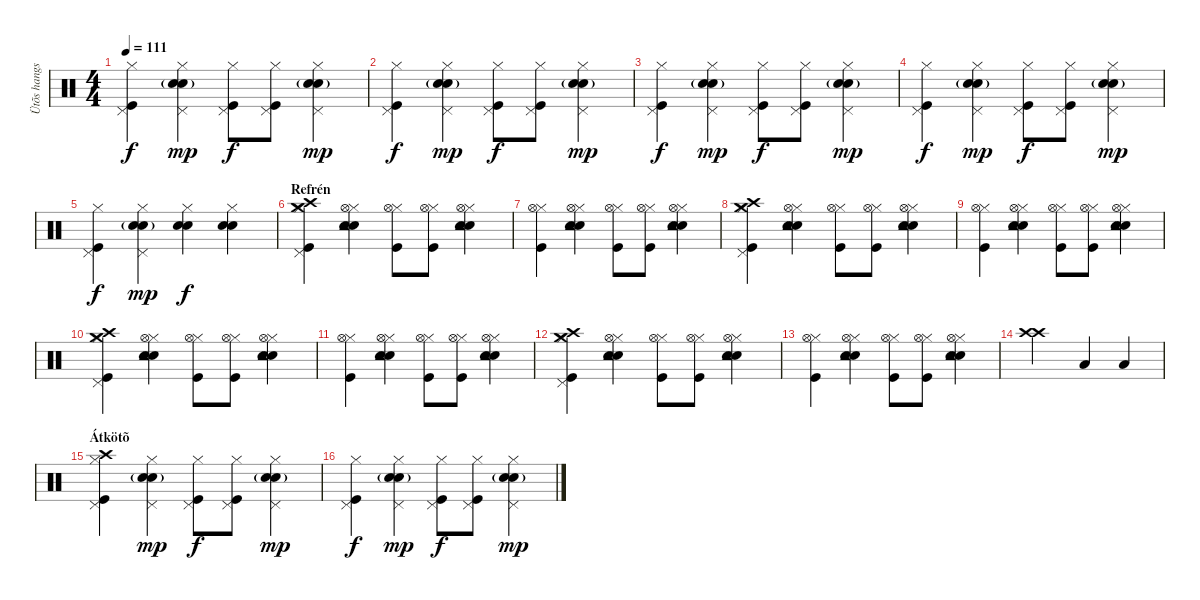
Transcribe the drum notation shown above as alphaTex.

\track ("Ütõs hangszer" "Ütõs hangs") {instrument percussion}
\staff {score}
\articulation defaults
\ts (4 4)
\tempo 111
\clef neutral
\ks c
("Hi-Hat (closed)" "Pedal Hi-Hat (hit)" "Kick (hit)").4{dy f} ("Hi-Hat (closed)" "Electric Snare (hit)"{g} "Snare (hit) 2" "Pedal Hi-Hat (hit)").4{dy mp} ("Hi-Hat (closed)" "Pedal Hi-Hat (hit)" "Kick (hit)").8{dy f} ("Hi-Hat (closed)" "Pedal Hi-Hat (hit)" "Kick (hit)").8 ("Hi-Hat (closed)" "Electric Snare (hit)"{g} "Snare (hit) 2" "Pedal Hi-Hat (hit)").4{dy mp} |
("Hi-Hat (closed)" "Pedal Hi-Hat (hit)" "Kick (hit)").4{dy f} ("Hi-Hat (closed)" "Electric Snare (hit)"{g} "Snare (hit) 2" "Pedal Hi-Hat (hit)").4{dy mp} ("Hi-Hat (closed)" "Pedal Hi-Hat (hit)" "Kick (hit)").8{dy f} ("Hi-Hat (closed)" "Pedal Hi-Hat (hit)" "Kick (hit)").8 ("Hi-Hat (closed)" "Electric Snare (hit)"{g} "Snare (hit) 2" "Pedal Hi-Hat (hit)").4{dy mp} |
("Hi-Hat (closed)" "Pedal Hi-Hat (hit)" "Kick (hit)").4{dy f} ("Hi-Hat (closed)" "Electric Snare (hit)"{g} "Snare (hit) 2" "Pedal Hi-Hat (hit)").4{dy mp} ("Hi-Hat (closed)" "Pedal Hi-Hat (hit)" "Kick (hit)").8{dy f} ("Hi-Hat (closed)" "Pedal Hi-Hat (hit)" "Kick (hit)").8 ("Hi-Hat (closed)" "Electric Snare (hit)"{g} "Snare (hit) 2" "Pedal Hi-Hat (hit)").4{dy mp} |
("Hi-Hat (closed)" "Pedal Hi-Hat (hit)" "Kick (hit)").4{dy f} ("Hi-Hat (closed)" "Electric Snare (hit)"{g} "Snare (hit) 2" "Pedal Hi-Hat (hit)").4{dy mp} ("Hi-Hat (closed)" "Pedal Hi-Hat (hit)" "Kick (hit)").8{dy f} ("Hi-Hat (closed)" "Pedal Hi-Hat (hit)" "Kick (hit)").8 ("Hi-Hat (closed)" "Electric Snare (hit)"{g} "Snare (hit) 2" "Pedal Hi-Hat (hit)").4{dy mp} |
("Hi-Hat (closed)" "Pedal Hi-Hat (hit)" "Kick (hit)").4{dy f} ("Hi-Hat (closed)" "Electric Snare (hit)"{g} "Snare (hit) 2" "Pedal Hi-Hat (hit)").4{dy mp} ("Hi-Hat (closed)" "Electric Snare (hit)" "Snare (hit) 2").4{dy f} ("Hi-Hat (closed)" "Electric Snare (hit)" "Snare (hit) 2").4 |
\section ("" "Refrén")
("Hi-Hat (closed)" "Pedal Hi-Hat (hit)" "Crash high (hit)" "Crash medium (hit)" "Kick (hit)").4 ("Hi-Hat (closed)" "Electric Snare (hit)" "Snare (hit) 2" "Hi-Hat (open)" "Tambourine (hit)").4 ("Hi-Hat (closed)" "Hi-Hat (open)" "Kick (hit)").8 ("Hi-Hat (closed)" "Hi-Hat (open)" "Kick (hit)").8 ("Hi-Hat (closed)" "Electric Snare (hit)" "Snare (hit) 2" "Hi-Hat (open)" "Tambourine (hit)").4 |
("Hi-Hat (closed)" "Hi-Hat (open)" "Kick (hit)").4 ("Hi-Hat (closed)" "Electric Snare (hit)" "Snare (hit) 2" "Hi-Hat (open)" "Tambourine (hit)").4 ("Hi-Hat (closed)" "Hi-Hat (open)" "Kick (hit)").8 ("Hi-Hat (closed)" "Hi-Hat (open)" "Kick (hit)").8 ("Hi-Hat (closed)" "Electric Snare (hit)" "Snare (hit) 2" "Hi-Hat (open)" "Tambourine (hit)").4 |
("Hi-Hat (closed)" "Pedal Hi-Hat (hit)" "Crash high (hit)" "Crash medium (hit)" "Kick (hit)").4 ("Hi-Hat (closed)" "Electric Snare (hit)" "Snare (hit) 2" "Hi-Hat (open)" "Tambourine (hit)").4 ("Hi-Hat (closed)" "Hi-Hat (open)" "Kick (hit)").8 ("Hi-Hat (closed)" "Hi-Hat (open)" "Kick (hit)").8 ("Hi-Hat (closed)" "Electric Snare (hit)" "Snare (hit) 2" "Hi-Hat (open)" "Tambourine (hit)").4 |
("Hi-Hat (closed)" "Hi-Hat (open)" "Kick (hit)").4 ("Hi-Hat (closed)" "Electric Snare (hit)" "Snare (hit) 2" "Hi-Hat (open)" "Tambourine (hit)").4 ("Hi-Hat (closed)" "Hi-Hat (open)" "Kick (hit)").8 ("Hi-Hat (closed)" "Hi-Hat (open)" "Kick (hit)").8 ("Hi-Hat (closed)" "Electric Snare (hit)" "Snare (hit) 2" "Hi-Hat (open)" "Tambourine (hit)").4 |
("Hi-Hat (closed)" "Pedal Hi-Hat (hit)" "Crash high (hit)" "Crash medium (hit)" "Kick (hit)").4 ("Hi-Hat (closed)" "Electric Snare (hit)" "Snare (hit) 2" "Hi-Hat (open)" "Tambourine (hit)").4 ("Hi-Hat (closed)" "Hi-Hat (open)" "Kick (hit)").8 ("Hi-Hat (closed)" "Hi-Hat (open)" "Kick (hit)").8 ("Hi-Hat (closed)" "Electric Snare (hit)" "Snare (hit) 2" "Hi-Hat (open)" "Tambourine (hit)").4 |
("Hi-Hat (closed)" "Hi-Hat (open)" "Kick (hit)").4 ("Hi-Hat (closed)" "Electric Snare (hit)" "Snare (hit) 2" "Hi-Hat (open)" "Tambourine (hit)").4 ("Hi-Hat (closed)" "Hi-Hat (open)" "Kick (hit)").8 ("Hi-Hat (closed)" "Hi-Hat (open)" "Kick (hit)").8 ("Hi-Hat (closed)" "Electric Snare (hit)" "Snare (hit) 2" "Hi-Hat (open)" "Tambourine (hit)").4 |
("Hi-Hat (closed)" "Pedal Hi-Hat (hit)" "Crash high (hit)" "Crash medium (hit)" "Kick (hit)").4 ("Hi-Hat (closed)" "Electric Snare (hit)" "Snare (hit) 2" "Hi-Hat (open)" "Tambourine (hit)").4 ("Hi-Hat (closed)" "Hi-Hat (open)" "Kick (hit)").8 ("Hi-Hat (closed)" "Hi-Hat (open)" "Kick (hit)").8 ("Hi-Hat (closed)" "Electric Snare (hit)" "Snare (hit) 2" "Hi-Hat (open)" "Tambourine (hit)").4 |
("Hi-Hat (closed)" "Hi-Hat (open)" "Kick (hit)").4 ("Hi-Hat (closed)" "Electric Snare (hit)" "Snare (hit) 2" "Hi-Hat (open)" "Tambourine (hit)").4 ("Hi-Hat (closed)" "Hi-Hat (open)" "Kick (hit)").8 ("Hi-Hat (closed)" "Hi-Hat (open)" "Kick (hit)").8 ("Hi-Hat (closed)" "Electric Snare (hit)" "Snare (hit) 2" "Hi-Hat (open)" "Tambourine (hit)").4 |
("Crash high (hit)" "Crash high (hit)").2 "Low Tom (hit)".4 "Low Tom (hit)".4 |
\section ("" "Átkötõ")
("Hi-Hat (closed)" "Pedal Hi-Hat (hit)" "Crash high (hit)" "Kick (hit)").4 ("Hi-Hat (closed)" "Electric Snare (hit)"{g} "Snare (hit) 2" "Pedal Hi-Hat (hit)").4{dy mp} ("Hi-Hat (closed)" "Pedal Hi-Hat (hit)" "Kick (hit)").8{dy f} ("Hi-Hat (closed)" "Pedal Hi-Hat (hit)" "Kick (hit)").8 ("Hi-Hat (closed)" "Electric Snare (hit)"{g} "Snare (hit) 2" "Pedal Hi-Hat (hit)").4{dy mp} |
("Hi-Hat (closed)" "Pedal Hi-Hat (hit)" "Kick (hit)").4{dy f} ("Hi-Hat (closed)" "Electric Snare (hit)"{g} "Snare (hit) 2" "Pedal Hi-Hat (hit)").4{dy mp} ("Hi-Hat (closed)" "Pedal Hi-Hat (hit)" "Kick (hit)").8{dy f} ("Hi-Hat (closed)" "Pedal Hi-Hat (hit)" "Kick (hit)").8 ("Hi-Hat (closed)" "Electric Snare (hit)"{g} "Snare (hit) 2" "Pedal Hi-Hat (hit)").4{dy mp}
